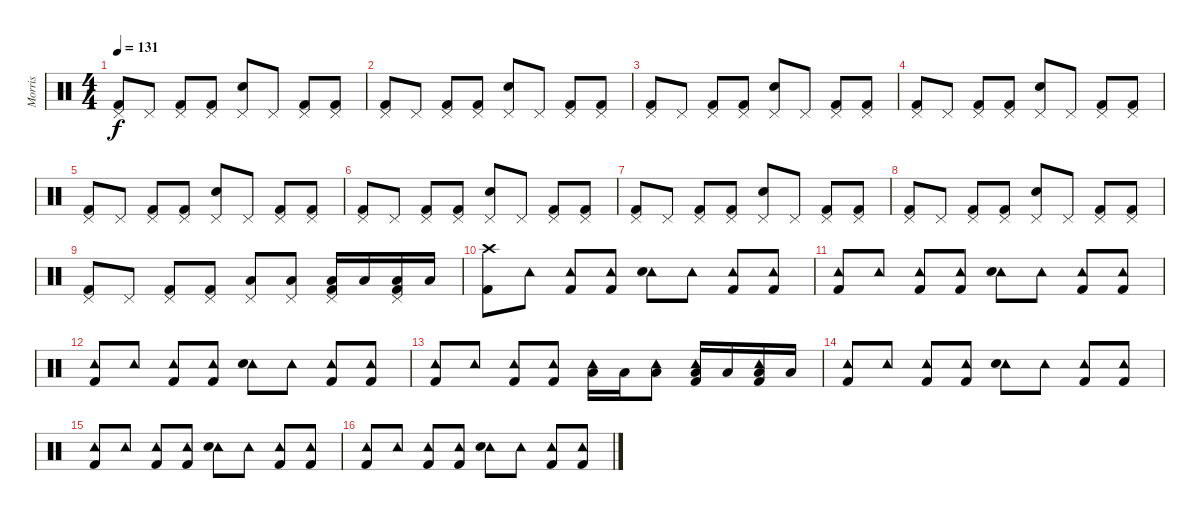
\track ("Morris" "Morris") {instrument percussion}
\staff {score}
\articulation defaults
\ts (4 4)
\tempo 131
\clef neutral
\ks c
("Pedal Hi-Hat (hit)" "Kick (hit) 2").8{dy f} "Pedal Hi-Hat (hit)".8 ("Pedal Hi-Hat (hit)" "Kick (hit) 2").8 ("Pedal Hi-Hat (hit)" "Kick (hit) 2").8 ("Pedal Hi-Hat (hit)" "Electric Snare (hit)").8 "Pedal Hi-Hat (hit)".8 ("Pedal Hi-Hat (hit)" "Kick (hit) 2").8 ("Pedal Hi-Hat (hit)" "Kick (hit) 2").8 |
("Pedal Hi-Hat (hit)" "Kick (hit) 2").8 "Pedal Hi-Hat (hit)".8 ("Pedal Hi-Hat (hit)" "Kick (hit) 2").8 ("Pedal Hi-Hat (hit)" "Kick (hit) 2").8 ("Pedal Hi-Hat (hit)" "Electric Snare (hit)").8 "Pedal Hi-Hat (hit)".8 ("Pedal Hi-Hat (hit)" "Kick (hit) 2").8 ("Pedal Hi-Hat (hit)" "Kick (hit) 2").8 |
("Pedal Hi-Hat (hit)" "Kick (hit) 2").8 "Pedal Hi-Hat (hit)".8 ("Pedal Hi-Hat (hit)" "Kick (hit) 2").8 ("Pedal Hi-Hat (hit)" "Kick (hit) 2").8 ("Pedal Hi-Hat (hit)" "Electric Snare (hit)").8 "Pedal Hi-Hat (hit)".8 ("Pedal Hi-Hat (hit)" "Kick (hit) 2").8 ("Pedal Hi-Hat (hit)" "Kick (hit) 2").8 |
("Pedal Hi-Hat (hit)" "Kick (hit) 2").8 "Pedal Hi-Hat (hit)".8 ("Pedal Hi-Hat (hit)" "Kick (hit) 2").8 ("Pedal Hi-Hat (hit)" "Kick (hit) 2").8 ("Pedal Hi-Hat (hit)" "Electric Snare (hit)").8 "Pedal Hi-Hat (hit)".8 ("Pedal Hi-Hat (hit)" "Kick (hit) 2").8 ("Pedal Hi-Hat (hit)" "Kick (hit) 2").8 |
("Pedal Hi-Hat (hit)" "Kick (hit) 2").8 "Pedal Hi-Hat (hit)".8 ("Pedal Hi-Hat (hit)" "Kick (hit) 2").8 ("Pedal Hi-Hat (hit)" "Kick (hit) 2").8 ("Pedal Hi-Hat (hit)" "Electric Snare (hit)").8 "Pedal Hi-Hat (hit)".8 ("Pedal Hi-Hat (hit)" "Kick (hit) 2").8 ("Pedal Hi-Hat (hit)" "Kick (hit) 2").8 |
("Pedal Hi-Hat (hit)" "Kick (hit) 2").8 "Pedal Hi-Hat (hit)".8 ("Pedal Hi-Hat (hit)" "Kick (hit) 2").8 ("Pedal Hi-Hat (hit)" "Kick (hit) 2").8 ("Pedal Hi-Hat (hit)" "Electric Snare (hit)").8 "Pedal Hi-Hat (hit)".8 ("Pedal Hi-Hat (hit)" "Kick (hit) 2").8 ("Pedal Hi-Hat (hit)" "Kick (hit) 2").8 |
("Pedal Hi-Hat (hit)" "Kick (hit) 2").8 "Pedal Hi-Hat (hit)".8 ("Pedal Hi-Hat (hit)" "Kick (hit) 2").8 ("Pedal Hi-Hat (hit)" "Kick (hit) 2").8 ("Pedal Hi-Hat (hit)" "Electric Snare (hit)").8 "Pedal Hi-Hat (hit)".8 ("Pedal Hi-Hat (hit)" "Kick (hit) 2").8 ("Pedal Hi-Hat (hit)" "Kick (hit) 2").8 |
("Pedal Hi-Hat (hit)" "Kick (hit) 2").8 "Pedal Hi-Hat (hit)".8 ("Pedal Hi-Hat (hit)" "Kick (hit) 2").8 ("Pedal Hi-Hat (hit)" "Kick (hit) 2").8 ("Pedal Hi-Hat (hit)" "Electric Snare (hit)").8 "Pedal Hi-Hat (hit)".8 ("Pedal Hi-Hat (hit)" "Kick (hit) 2").8 ("Pedal Hi-Hat (hit)" "Kick (hit) 2").8 |
("Pedal Hi-Hat (hit)" "Kick (hit) 2").8 "Pedal Hi-Hat (hit)".8 ("Pedal Hi-Hat (hit)" "Kick (hit) 2").8 ("Pedal Hi-Hat (hit)" "Kick (hit) 2").8 ("Pedal Hi-Hat (hit)" "Low Floor Tom (hit)").8 ("Pedal Hi-Hat (hit)" "Low Floor Tom (hit)").8 ("Pedal Hi-Hat (hit)" "Low Floor Tom (hit)" "Kick (hit) 2").16 "Low Floor Tom (hit)".16 ("Pedal Hi-Hat (hit)" "Low Floor Tom (hit)" "Kick (hit) 2").16 "Low Floor Tom (hit)".16 |
("Crash high (hit)" "Kick (hit) 2").8 "Tambourine (hit)".8 ("Tambourine (hit)" "Kick (hit) 2").8 ("Tambourine (hit)" "Kick (hit) 2").8 ("Tambourine (hit)" "Electric Snare (hit)").8 "Tambourine (hit)".8 ("Tambourine (hit)" "Kick (hit) 2").8 ("Tambourine (hit)" "Kick (hit) 2").8 |
("Tambourine (hit)" "Kick (hit) 2").8 "Tambourine (hit)".8 ("Tambourine (hit)" "Kick (hit) 2").8 ("Tambourine (hit)" "Kick (hit) 2").8 ("Tambourine (hit)" "Electric Snare (hit)").8 "Tambourine (hit)".8 ("Tambourine (hit)" "Kick (hit) 2").8 ("Tambourine (hit)" "Kick (hit) 2").8 |
("Tambourine (hit)" "Kick (hit) 2").8 "Tambourine (hit)".8 ("Tambourine (hit)" "Kick (hit) 2").8 ("Tambourine (hit)" "Kick (hit) 2").8 ("Tambourine (hit)" "Electric Snare (hit)").8 "Tambourine (hit)".8 ("Tambourine (hit)" "Kick (hit) 2").8 ("Tambourine (hit)" "Kick (hit) 2").8 |
("Tambourine (hit)" "Kick (hit) 2").8 "Tambourine (hit)".8 ("Tambourine (hit)" "Kick (hit) 2").8 ("Tambourine (hit)" "Kick (hit) 2").8 ("Tambourine (hit)" "Low Floor Tom (hit)").16 "Low Floor Tom (hit)".16 ("Tambourine (hit)" "Low Floor Tom (hit)").8 ("Tambourine (hit)" "Low Floor Tom (hit)" "Kick (hit) 2").16 "Low Floor Tom (hit)".16 ("Tambourine (hit)" "Low Floor Tom (hit)" "Kick (hit) 2").16 "Low Floor Tom (hit)".16 |
("Tambourine (hit)" "Kick (hit) 2").8 "Tambourine (hit)".8 ("Tambourine (hit)" "Kick (hit) 2").8 ("Tambourine (hit)" "Kick (hit) 2").8 ("Tambourine (hit)" "Electric Snare (hit)").8 "Tambourine (hit)".8 ("Tambourine (hit)" "Kick (hit) 2").8 ("Tambourine (hit)" "Kick (hit) 2").8 |
("Tambourine (hit)" "Kick (hit) 2").8 "Tambourine (hit)".8 ("Tambourine (hit)" "Kick (hit) 2").8 ("Tambourine (hit)" "Kick (hit) 2").8 ("Tambourine (hit)" "Electric Snare (hit)").8 "Tambourine (hit)".8 ("Tambourine (hit)" "Kick (hit) 2").8 ("Tambourine (hit)" "Kick (hit) 2").8 |
("Tambourine (hit)" "Kick (hit) 2").8 "Tambourine (hit)".8 ("Tambourine (hit)" "Kick (hit) 2").8 ("Tambourine (hit)" "Kick (hit) 2").8 ("Tambourine (hit)" "Electric Snare (hit)").8 "Tambourine (hit)".8 ("Tambourine (hit)" "Kick (hit) 2").8 ("Tambourine (hit)" "Kick (hit) 2").8
